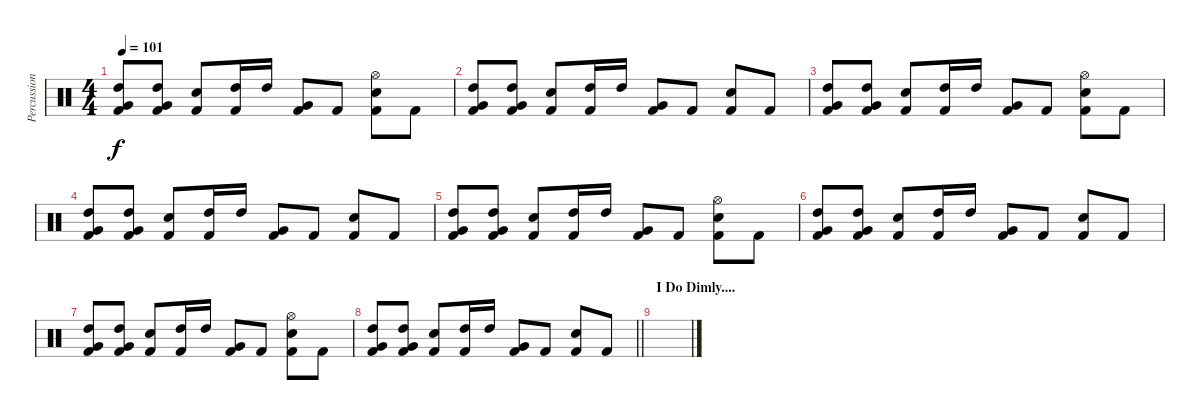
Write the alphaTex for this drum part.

\track ("Percussion" "Percussion") {instrument percussion}
\staff {score}
\articulation defaults
\ts (4 4)
\tempo 101
\clef neutral
\ks c
("High Tom (hit)" "Very Low Tom (hit)" "Kick (hit) 2").8{dy f} ("High Tom (hit)" "Very Low Tom (hit)" "Kick (hit) 2").8 ("Electric Snare (hit)" "Kick (hit) 2").8 ("High Tom (hit)" "Kick (hit) 2").16 "High Tom (hit)".16 ("Very Low Tom (hit)" "Kick (hit) 2").8 "Kick (hit) 2".8 ("Electric Snare (hit)" "Hi-Hat (open)" "Kick (hit) 2").8 "Kick (hit) 2".8 |
("High Tom (hit)" "Very Low Tom (hit)" "Kick (hit) 2").8 ("High Tom (hit)" "Very Low Tom (hit)" "Kick (hit) 2").8 ("Electric Snare (hit)" "Kick (hit) 2").8 ("High Tom (hit)" "Kick (hit) 2").16 "High Tom (hit)".16 ("Very Low Tom (hit)" "Kick (hit) 2").8 "Kick (hit) 2".8 ("Electric Snare (hit)" "Kick (hit) 2").8 "Kick (hit) 2".8 |
("High Tom (hit)" "Very Low Tom (hit)" "Kick (hit) 2").8 ("High Tom (hit)" "Very Low Tom (hit)" "Kick (hit) 2").8 ("Electric Snare (hit)" "Kick (hit) 2").8 ("High Tom (hit)" "Kick (hit) 2").16 "High Tom (hit)".16 ("Very Low Tom (hit)" "Kick (hit) 2").8 "Kick (hit) 2".8 ("Electric Snare (hit)" "Hi-Hat (open)" "Kick (hit) 2").8 "Kick (hit) 2".8 |
("High Tom (hit)" "Very Low Tom (hit)" "Kick (hit) 2").8 ("High Tom (hit)" "Very Low Tom (hit)" "Kick (hit) 2").8 ("Electric Snare (hit)" "Kick (hit) 2").8 ("High Tom (hit)" "Kick (hit) 2").16 "High Tom (hit)".16 ("Very Low Tom (hit)" "Kick (hit) 2").8 "Kick (hit) 2".8 ("Electric Snare (hit)" "Kick (hit) 2").8 "Kick (hit) 2".8 |
("High Tom (hit)" "Very Low Tom (hit)" "Kick (hit) 2").8 ("High Tom (hit)" "Very Low Tom (hit)" "Kick (hit) 2").8 ("Electric Snare (hit)" "Kick (hit) 2").8 ("High Tom (hit)" "Kick (hit) 2").16 "High Tom (hit)".16 ("Very Low Tom (hit)" "Kick (hit) 2").8 "Kick (hit) 2".8 ("Electric Snare (hit)" "Hi-Hat (open)" "Kick (hit) 2").8 "Kick (hit) 2".8 |
("High Tom (hit)" "Very Low Tom (hit)" "Kick (hit) 2").8 ("High Tom (hit)" "Very Low Tom (hit)" "Kick (hit) 2").8 ("Electric Snare (hit)" "Kick (hit) 2").8 ("High Tom (hit)" "Kick (hit) 2").16 "High Tom (hit)".16 ("Very Low Tom (hit)" "Kick (hit) 2").8 "Kick (hit) 2".8 ("Electric Snare (hit)" "Kick (hit) 2").8 "Kick (hit) 2".8 |
("High Tom (hit)" "Very Low Tom (hit)" "Kick (hit) 2").8 ("High Tom (hit)" "Very Low Tom (hit)" "Kick (hit) 2").8 ("Electric Snare (hit)" "Kick (hit) 2").8 ("High Tom (hit)" "Kick (hit) 2").16 "High Tom (hit)".16 ("Very Low Tom (hit)" "Kick (hit) 2").8 "Kick (hit) 2".8 ("Electric Snare (hit)" "Hi-Hat (open)" "Kick (hit) 2").8 "Kick (hit) 2".8 |
\barLineRight lightlight
("High Tom (hit)" "Very Low Tom (hit)" "Kick (hit) 2").8 ("High Tom (hit)" "Very Low Tom (hit)" "Kick (hit) 2").8 ("Electric Snare (hit)" "Kick (hit) 2").8 ("High Tom (hit)" "Kick (hit) 2").16 "High Tom (hit)".16 ("Very Low Tom (hit)" "Kick (hit) 2").8 "Kick (hit) 2".8 ("Electric Snare (hit)" "Kick (hit) 2").8 "Kick (hit) 2".8 |
\section ("" "I Do Dimly....")
